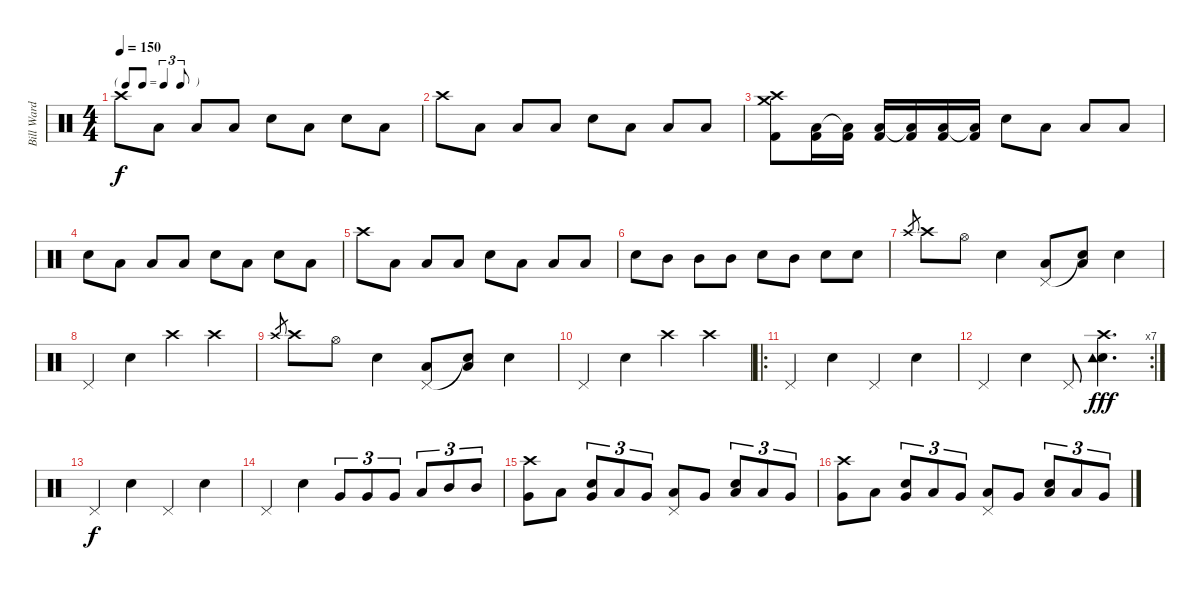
\track ("Bill Ward" "Bill Ward") {instrument percussion}
\staff {score}
\articulation defaults
\ts (4 4)
\tf triplet8th
\tempo 150
\clef neutral
\ks c "Crash high (hit)".8{dy f} "Low Tom (hit)".8 "Low Tom (hit)".8 "Low Tom (hit)".8 "Snare (hit) 2".8 "Low Tom (hit)".8 "Snare (hit) 2".8 "Low Tom (hit)".8
|
"Crash high (hit)".8 "Low Tom (hit)".8 "Low Tom (hit)".8 "Low Tom (hit)".8 "Snare (hit) 2".8 "Low Tom (hit)".8 "Low Tom (hit)".8 "Low Tom (hit)".8 |
("Crash medium (hit)" "Crash high (hit)" "Kick (hit) 2").8 ("Kick (hit) 2" "Low Tom (hit)").16 ("Kick (hit) 2" "Low Tom (hit)"{t}).16 ("Kick (hit) 2" "Low Tom (hit)").16 ("Kick (hit) 2" "Low Tom (hit)"{t}).16 ("Kick (hit) 2" "Low Tom (hit)").16 ("Kick (hit) 2" "Low Tom (hit)"{t}).16 "Snare (hit) 2".8 "Low Tom (hit)".8 "Low Tom (hit)".8 "Low Tom (hit)".8 |
"Snare (hit) 2".8 "Low Tom (hit)".8 "Low Tom (hit)".8 "Low Tom (hit)".8 "Snare (hit) 2".8 "Low Tom (hit)".8 "Snare (hit) 2".8 "Low Tom (hit)".8 |
"Crash high (hit)".8 "Low Tom (hit)".8 "Low Tom (hit)".8 "Low Tom (hit)".8 "Snare (hit) 2".8 "Low Tom (hit)".8 "Low Tom (hit)".8 "Low Tom (hit)".8 |
"Snare (hit) 2".8 "Mid Tom (hit)".8 "Mid Tom (hit)".8 "Mid Tom (hit)".8 "Snare (hit) 2".8 "Mid Tom (hit)".8 "Snare (hit) 2".8 "Snare (hit) 2".8 |
"Crash high (hit)".8{gr} "Crash high (hit)".8 "Hi-Hat (open)".8 "Snare (hit) 2".4 ("Low Floor Tom (hit)" "Pedal Hi-Hat (hit)").8 ("Low Floor Tom (hit)" "Snare (hit)"{t}).8 "Snare (hit) 2".4 |
"Pedal Hi-Hat (hit)".4 "Snare (hit) 2".4 "Crash high (hit)".4 "Crash high (hit)".4 |
"Crash high (hit)".8{gr} "Crash high (hit)".8 "Hi-Hat (open)".8 "Snare (hit) 2".4 ("Low Floor Tom (hit)" "Pedal Hi-Hat (hit)").8 ("Low Floor Tom (hit)" "Snare (hit)"{t}).8 "Snare (hit) 2".4 |
"Pedal Hi-Hat (hit)".4 "Snare (hit) 2".4 "Crash high (hit)".4 "Crash high (hit)".4 |
\ro "Pedal Hi-Hat (hit)".4 "Snare (hit) 2".4 "Pedal Hi-Hat (hit)".4 "Snare (hit) 2".4
|
\rc 7 "Pedal Hi-Hat (hit)".4 "Snare (hit) 2".4 "Pedal Hi-Hat (hit)".8
("Snare (hit) 2" "Crash high (hit)" "Tambourine (hit)").4{d dy fff} |
"Pedal Hi-Hat (hit)".4{dy f} "Snare (hit) 2".4 "Pedal Hi-Hat (hit)".4 "Snare (hit) 2".4 |
"Pedal Hi-Hat (hit)".4 "Snare (hit) 2".4 "Very Low Tom (hit)".8{tu (3 2)} "Very Low Tom (hit)".8{tu (3 2)} "Very Low Tom (hit)".8{tu (3 2)} "Low Tom (hit)".8{tu (3 2)} "Mid Tom (hit)".8{tu (3 2)} "Mid Tom (hit)".8{tu (3 2)} |
("Crash high (hit)" "Very Low Tom (hit)").8 "Low Tom (hit)".8 ("Snare (hit) 2" "Very Low Tom (hit)").8{tu (3 2)} "Low Tom (hit)".8{tu (3 2)} "Very Low Tom (hit)".8{tu (3 2)} ("Pedal Hi-Hat (hit)" "Low Tom (hit)").8 "Very Low Tom (hit)".8 ("Snare (hit) 2" "Low Tom (hit)").8{tu (3 2)} "Low Tom (hit)".8{tu (3 2)} "Very Low Tom (hit)".8{tu (3 2)} |
("Crash high (hit)" "Very Low Tom (hit)").8 "Low Tom (hit)".8 ("Snare (hit) 2" "Very Low Tom (hit)").8{tu (3 2)} "Low Tom (hit)".8{tu (3 2)} "Very Low Tom (hit)".8{tu (3 2)} ("Pedal Hi-Hat (hit)" "Low Tom (hit)").8 "Very Low Tom (hit)".8 ("Snare (hit) 2" "Low Tom (hit)").8{tu (3 2)} "Low Tom (hit)".8{tu (3 2)} "Very Low Tom (hit)".8{tu (3 2)}
